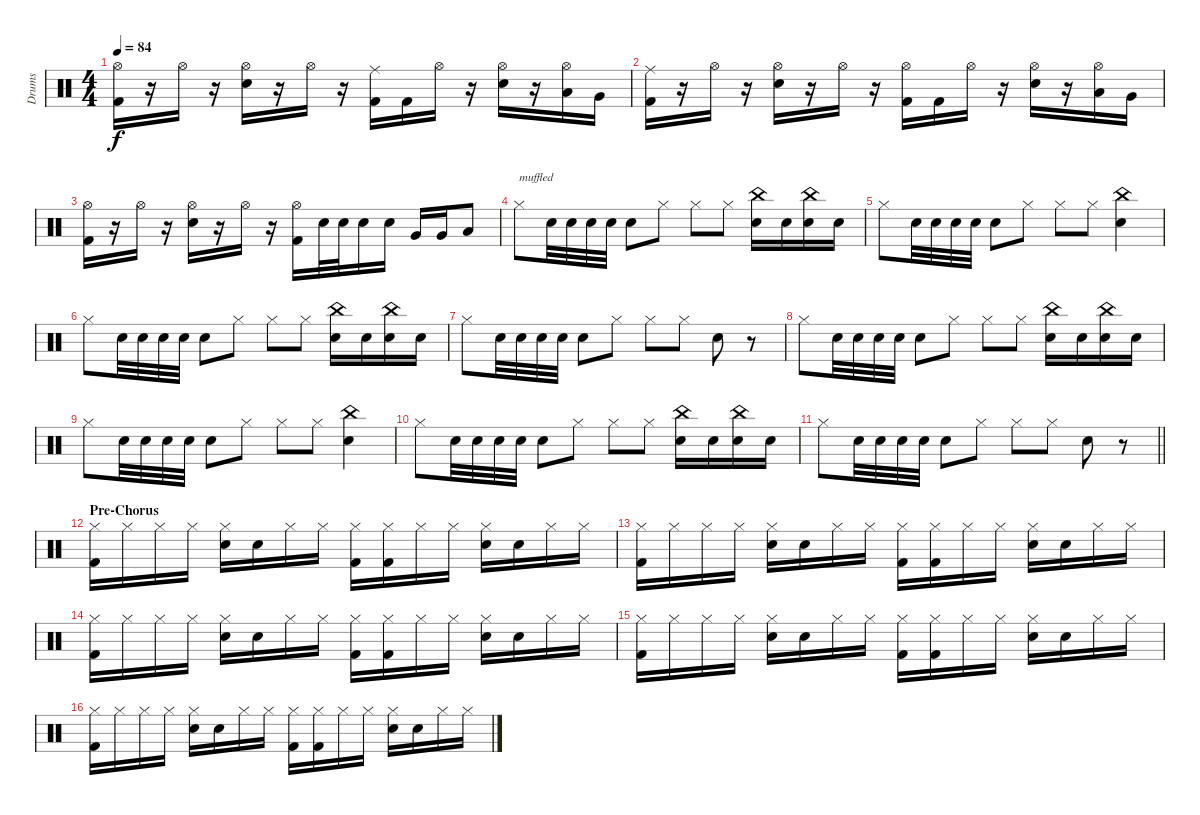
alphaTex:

\track ("Drums" "Drums") {instrument percussion}
\staff {score}
\articulation defaults
\ts (4 4)
\tempo 84
\clef neutral
\ks c
("Hi-Hat (open)" "Kick (hit) 2").16{dy f} r.16 "Hi-Hat (open)".16 r.16 ("Hi-Hat (open)" "Electric Snare (hit)").16 r.16 "Hi-Hat (open)".16 r.16 ("Ride (middle)" "Kick (hit) 2").16 "Kick (hit) 2".16 "Hi-Hat (open)".16 r.16 ("Hi-Hat (open)" "Electric Snare (hit)").16 r.16 ("Hi-Hat (open)" "Low Tom (hit)").16 "Very Low Tom (hit)".16 |
("Ride (middle)" "Kick (hit) 2").16 r.16 "Hi-Hat (open)".16 r.16 ("Hi-Hat (open)" "Electric Snare (hit)").16 r.16 "Hi-Hat (open)".16 r.16 ("Hi-Hat (open)" "Kick (hit) 2").16 "Kick (hit) 2".16 "Hi-Hat (open)".16 r.16 ("Hi-Hat (open)" "Electric Snare (hit)").16 r.16 ("Hi-Hat (open)" "Low Tom (hit)").16 "Very Low Tom (hit)".16 |
("Hi-Hat (open)" "Kick (hit) 2").16 r.16 "Hi-Hat (open)".16 r.16 ("Hi-Hat (open)" "Electric Snare (hit)").16 r.16 "Hi-Hat (open)".16 r.16 ("Hi-Hat (open)" "Kick (hit) 2").16 "Electric Snare (hit)".32 "Electric Snare (hit)".32 "Electric Snare (hit)".16 "Electric Snare (hit)".16 "Very Low Tom (hit)".16 "Very Low Tom (hit)".16 "Low Floor Tom (hit)".8 |
"Hi-Hat (closed)".8{txt "muffled" volume 6} "Snare (hit) 2".32 "Snare (hit) 2".32 "Snare (hit) 2".32 "Snare (hit) 2".32 "Snare (hit) 2".8 "Hi-Hat (closed)".8 "Hi-Hat (closed)".8 "Hi-Hat (closed)".8 ("China (hit)" "Snare (hit) 2").16 "Snare (hit) 2".16 ("China (hit)" "Snare (hit) 2").16 "Snare (hit) 2".16 |
"Hi-Hat (closed)".8 "Snare (hit) 2".32 "Snare (hit) 2".32 "Snare (hit) 2".32 "Snare (hit) 2".32 "Snare (hit) 2".8 "Hi-Hat (closed)".8 "Hi-Hat (closed)".8 "Hi-Hat (closed)".8 ("China (hit)" "Snare (hit) 2").4 |
"Hi-Hat (closed)".8 "Snare (hit) 2".32 "Snare (hit) 2".32 "Snare (hit) 2".32 "Snare (hit) 2".32 "Snare (hit) 2".8 "Hi-Hat (closed)".8 "Hi-Hat (closed)".8 "Hi-Hat (closed)".8 ("China (hit)" "Snare (hit) 2").16 "Snare (hit) 2".16 ("China (hit)" "Snare (hit) 2").16 "Snare (hit) 2".16 |
"Hi-Hat (closed)".8 "Snare (hit) 2".32 "Snare (hit) 2".32 "Snare (hit) 2".32 "Snare (hit) 2".32 "Snare (hit) 2".8 "Hi-Hat (closed)".8 "Hi-Hat (closed)".8 "Hi-Hat (closed)".8 "Snare (hit) 2".8 r.8 |
"Hi-Hat (closed)".8 "Snare (hit) 2".32 "Snare (hit) 2".32 "Snare (hit) 2".32 "Snare (hit) 2".32 "Snare (hit) 2".8 "Hi-Hat (closed)".8 "Hi-Hat (closed)".8 "Hi-Hat (closed)".8 ("China (hit)" "Snare (hit) 2").16 "Snare (hit) 2".16 ("China (hit)" "Snare (hit) 2").16 "Snare (hit) 2".16 |
"Hi-Hat (closed)".8 "Snare (hit) 2".32 "Snare (hit) 2".32 "Snare (hit) 2".32 "Snare (hit) 2".32 "Snare (hit) 2".8 "Hi-Hat (closed)".8 "Hi-Hat (closed)".8 "Hi-Hat (closed)".8 ("China (hit)" "Snare (hit) 2").4 |
"Hi-Hat (closed)".8 "Snare (hit) 2".32 "Snare (hit) 2".32 "Snare (hit) 2".32 "Snare (hit) 2".32 "Snare (hit) 2".8 "Hi-Hat (closed)".8 "Hi-Hat (closed)".8 "Hi-Hat (closed)".8 ("China (hit)" "Snare (hit) 2").16 "Snare (hit) 2".16 ("China (hit)" "Snare (hit) 2").16 "Snare (hit) 2".16 |
\barLineRight lightlight "Hi-Hat (closed)".8 "Snare (hit) 2".32 "Snare (hit) 2".32 "Snare (hit) 2".32 "Snare (hit) 2".32 "Snare (hit) 2".8 "Hi-Hat (closed)".8 "Hi-Hat (closed)".8 "Hi-Hat (closed)".8 "Snare (hit) 2".8
r.8 |
\section ("" "Pre-Chorus")
("Hi-Hat (closed)" "Kick (hit) 2").16{volume 13} "Hi-Hat (closed)".16 "Hi-Hat (closed)".16 "Hi-Hat (closed)".16 ("Hi-Hat (closed)" "Electric Snare (hit)").16 "Electric Snare (hit)".16 "Hi-Hat (closed)".16 "Hi-Hat (closed)".16 ("Hi-Hat (closed)" "Kick (hit) 2").16 ("Hi-Hat (closed)" "Kick (hit) 2").16 "Hi-Hat (closed)".16 "Hi-Hat (closed)".16 ("Hi-Hat (closed)" "Electric Snare (hit)").16 "Electric Snare (hit)".16 "Hi-Hat (closed)".16 "Hi-Hat (closed)".16 |
("Hi-Hat (closed)" "Kick (hit) 2").16 "Hi-Hat (closed)".16 "Hi-Hat (closed)".16 "Hi-Hat (closed)".16 ("Hi-Hat (closed)" "Electric Snare (hit)").16 "Electric Snare (hit)".16 "Hi-Hat (closed)".16 "Hi-Hat (closed)".16 ("Hi-Hat (closed)" "Kick (hit) 2").16 ("Hi-Hat (closed)" "Kick (hit) 2").16 "Hi-Hat (closed)".16 "Hi-Hat (closed)".16 ("Hi-Hat (closed)" "Electric Snare (hit)").16 "Electric Snare (hit)".16 "Hi-Hat (closed)".16 "Hi-Hat (closed)".16 |
("Hi-Hat (closed)" "Kick (hit) 2").16 "Hi-Hat (closed)".16 "Hi-Hat (closed)".16 "Hi-Hat (closed)".16 ("Hi-Hat (closed)" "Electric Snare (hit)").16 "Electric Snare (hit)".16 "Hi-Hat (closed)".16 "Hi-Hat (closed)".16 ("Hi-Hat (closed)" "Kick (hit) 2").16 ("Hi-Hat (closed)" "Kick (hit) 2").16 "Hi-Hat (closed)".16 "Hi-Hat (closed)".16 ("Hi-Hat (closed)" "Electric Snare (hit)").16 "Electric Snare (hit)".16 "Hi-Hat (closed)".16 "Hi-Hat (closed)".16 |
("Hi-Hat (closed)" "Kick (hit) 2").16 "Hi-Hat (closed)".16 "Hi-Hat (closed)".16 "Hi-Hat (closed)".16 ("Hi-Hat (closed)" "Electric Snare (hit)").16 "Electric Snare (hit)".16 "Hi-Hat (closed)".16 "Hi-Hat (closed)".16 ("Hi-Hat (closed)" "Kick (hit) 2").16 ("Hi-Hat (closed)" "Kick (hit) 2").16 "Hi-Hat (closed)".16 "Hi-Hat (closed)".16 ("Hi-Hat (closed)" "Electric Snare (hit)").16 "Electric Snare (hit)".16 "Hi-Hat (closed)".16 "Hi-Hat (closed)".16 |
("Hi-Hat (closed)" "Kick (hit) 2").16 "Hi-Hat (closed)".16 "Hi-Hat (closed)".16 "Hi-Hat (closed)".16 ("Hi-Hat (closed)" "Electric Snare (hit)").16 "Electric Snare (hit)".16 "Hi-Hat (closed)".16 "Hi-Hat (closed)".16 ("Hi-Hat (closed)" "Kick (hit) 2").16 ("Hi-Hat (closed)" "Kick (hit) 2").16 "Hi-Hat (closed)".16 "Hi-Hat (closed)".16 ("Hi-Hat (closed)" "Electric Snare (hit)").16 "Electric Snare (hit)".16 "Hi-Hat (closed)".16 "Hi-Hat (closed)".16
